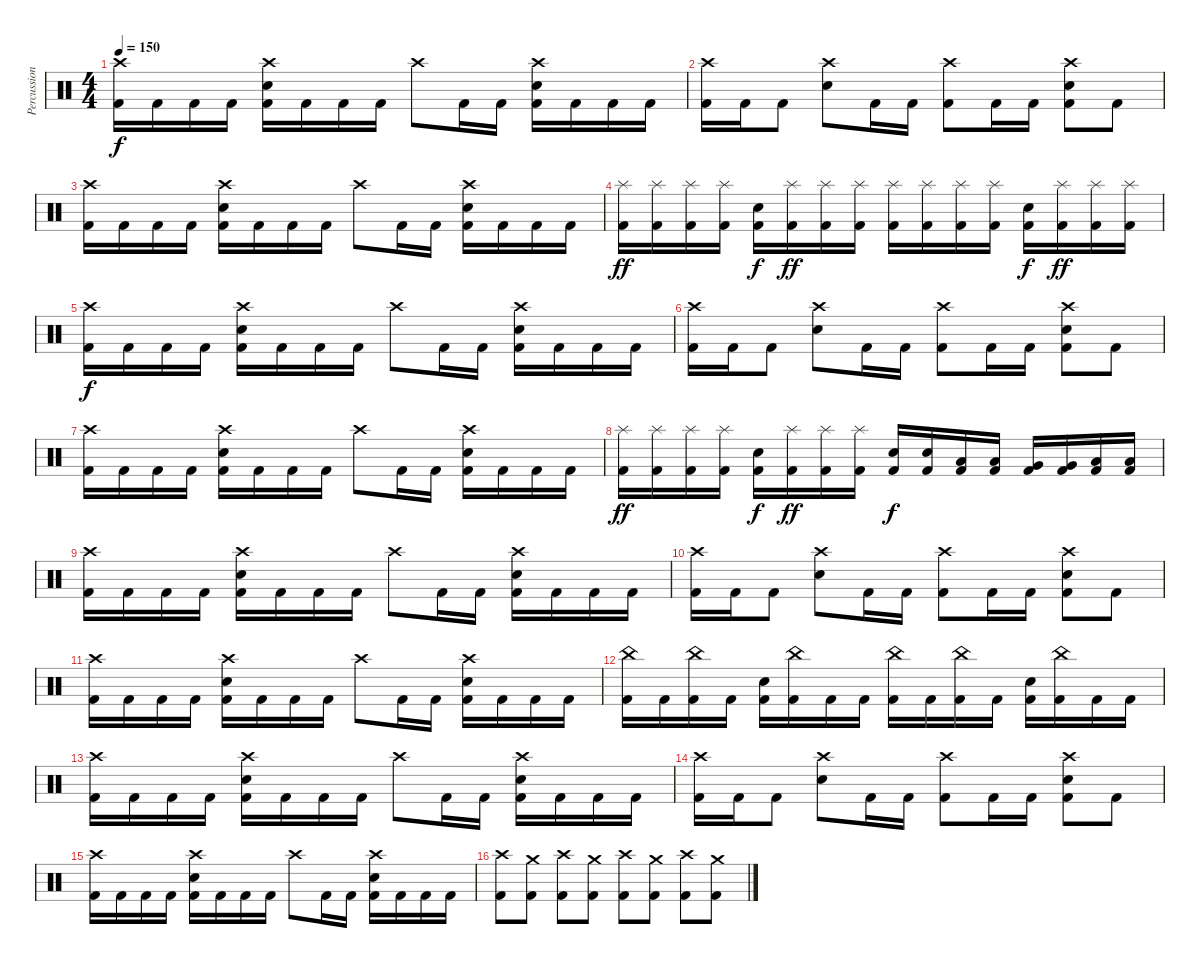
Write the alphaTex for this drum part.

\track ("Percussion" "Percussion") {instrument percussion}
\staff {score}
\articulation defaults
\ts (4 4)
\tempo 150
\clef neutral
\ks c
("Crash high (hit)" "Kick (hit) 2").16{dy f} "Kick (hit) 2".16 "Kick (hit) 2".16 "Kick (hit) 2".16 ("Crash high (hit)" "Electric Snare (hit)" "Kick (hit) 2").16 "Kick (hit) 2".16 "Kick (hit) 2".16 "Kick (hit) 2".16 "Crash high (hit)".8 "Kick (hit) 2".16 "Kick (hit) 2".16 ("Crash high (hit)" "Electric Snare (hit)" "Kick (hit) 2").16 "Kick (hit) 2".16 "Kick (hit) 2".16 "Kick (hit) 2".16 |
("Crash high (hit)" "Kick (hit) 2").16 "Kick (hit) 2".16 "Kick (hit) 2".8 ("Crash high (hit)" "Electric Snare (hit)").8 "Kick (hit) 2".16 "Kick (hit) 2".16 ("Crash high (hit)" "Kick (hit) 2").8 "Kick (hit) 2".16 "Kick (hit) 2".16 ("Crash high (hit)" "Electric Snare (hit)" "Kick (hit) 2").8 "Kick (hit) 2".8 |
("Crash high (hit)" "Kick (hit) 2").16 "Kick (hit) 2".16 "Kick (hit) 2".16 "Kick (hit) 2".16 ("Crash high (hit)" "Electric Snare (hit)" "Kick (hit) 2").16 "Kick (hit) 2".16 "Kick (hit) 2".16 "Kick (hit) 2".16 "Crash high (hit)".8 "Kick (hit) 2".16 "Kick (hit) 2".16 ("Crash high (hit)" "Electric Snare (hit)" "Kick (hit) 2").16 "Kick (hit) 2".16 "Kick (hit) 2".16 "Kick (hit) 2".16 |
("Splash (hit)" "Kick (hit) 2").16{dy ff} ("Splash (hit)" "Kick (hit) 2").16 ("Splash (hit)" "Kick (hit) 2").16 ("Splash (hit)" "Kick (hit) 2").16 ("Electric Snare (hit)" "Kick (hit) 2").16{dy f} ("Splash (hit)" "Kick (hit) 2").16{dy ff} ("Splash (hit)" "Kick (hit) 2").16 ("Splash (hit)" "Kick (hit) 2").16 ("Splash (hit)" "Kick (hit) 2").16 ("Splash (hit)" "Kick (hit) 2").16 ("Splash (hit)" "Kick (hit) 2").16 ("Splash (hit)" "Kick (hit) 2").16 ("Electric Snare (hit)" "Kick (hit) 2").16{dy f} ("Splash (hit)" "Kick (hit) 2").16{dy ff} ("Splash (hit)" "Kick (hit) 2").16 ("Splash (hit)" "Kick (hit) 2").16 |
("Crash high (hit)" "Kick (hit) 2").16{dy f} "Kick (hit) 2".16 "Kick (hit) 2".16 "Kick (hit) 2".16 ("Crash high (hit)" "Electric Snare (hit)" "Kick (hit) 2").16 "Kick (hit) 2".16 "Kick (hit) 2".16 "Kick (hit) 2".16 "Crash high (hit)".8 "Kick (hit) 2".16 "Kick (hit) 2".16 ("Crash high (hit)" "Electric Snare (hit)" "Kick (hit) 2").16 "Kick (hit) 2".16 "Kick (hit) 2".16 "Kick (hit) 2".16 |
("Crash high (hit)" "Kick (hit) 2").16 "Kick (hit) 2".16 "Kick (hit) 2".8 ("Crash high (hit)" "Electric Snare (hit)").8 "Kick (hit) 2".16 "Kick (hit) 2".16 ("Crash high (hit)" "Kick (hit) 2").8 "Kick (hit) 2".16 "Kick (hit) 2".16 ("Crash high (hit)" "Electric Snare (hit)" "Kick (hit) 2").8 "Kick (hit) 2".8 |
("Crash high (hit)" "Kick (hit) 2").16 "Kick (hit) 2".16 "Kick (hit) 2".16 "Kick (hit) 2".16 ("Crash high (hit)" "Electric Snare (hit)" "Kick (hit) 2").16 "Kick (hit) 2".16 "Kick (hit) 2".16 "Kick (hit) 2".16 "Crash high (hit)".8 "Kick (hit) 2".16 "Kick (hit) 2".16 ("Crash high (hit)" "Electric Snare (hit)" "Kick (hit) 2").16 "Kick (hit) 2".16 "Kick (hit) 2".16 "Kick (hit) 2".16 |
("Splash (hit)" "Kick (hit) 2").16{dy ff} ("Splash (hit)" "Kick (hit) 2").16 ("Splash (hit)" "Kick (hit) 2").16 ("Splash (hit)" "Kick (hit) 2").16 ("Electric Snare (hit)" "Kick (hit) 2").16{dy f} ("Splash (hit)" "Kick (hit) 2").16{dy ff} ("Splash (hit)" "Kick (hit) 2").16 ("Splash (hit)" "Kick (hit) 2").16 ("Electric Snare (hit)" "Kick (hit) 2").16{dy f} ("Electric Snare (hit)" "Kick (hit) 2").16 ("Low Tom (hit)" "Kick (hit) 2").16 ("Low Tom (hit)" "Kick (hit) 2").16 ("Very Low Tom (hit)" "Kick (hit) 2").16 ("Very Low Tom (hit)" "Kick (hit) 2").16 ("Low Floor Tom (hit)" "Kick (hit) 2").16 ("Low Floor Tom (hit)" "Kick (hit) 2").16 |
("Crash high (hit)" "Kick (hit) 2").16 "Kick (hit) 2".16 "Kick (hit) 2".16 "Kick (hit) 2".16 ("Crash high (hit)" "Electric Snare (hit)" "Kick (hit) 2").16 "Kick (hit) 2".16 "Kick (hit) 2".16 "Kick (hit) 2".16 "Crash high (hit)".8 "Kick (hit) 2".16 "Kick (hit) 2".16 ("Crash high (hit)" "Electric Snare (hit)" "Kick (hit) 2").16 "Kick (hit) 2".16 "Kick (hit) 2".16 "Kick (hit) 2".16 |
("Crash high (hit)" "Kick (hit) 2").16 "Kick (hit) 2".16 "Kick (hit) 2".8 ("Crash high (hit)" "Electric Snare (hit)").8 "Kick (hit) 2".16 "Kick (hit) 2".16 ("Crash high (hit)" "Kick (hit) 2").8 "Kick (hit) 2".16 "Kick (hit) 2".16 ("Crash high (hit)" "Electric Snare (hit)" "Kick (hit) 2").8 "Kick (hit) 2".8 |
("Crash high (hit)" "Kick (hit) 2").16 "Kick (hit) 2".16 "Kick (hit) 2".16 "Kick (hit) 2".16 ("Crash high (hit)" "Electric Snare (hit)" "Kick (hit) 2").16 "Kick (hit) 2".16 "Kick (hit) 2".16 "Kick (hit) 2".16 "Crash high (hit)".8 "Kick (hit) 2".16 "Kick (hit) 2".16 ("Crash high (hit)" "Electric Snare (hit)" "Kick (hit) 2").16 "Kick (hit) 2".16 "Kick (hit) 2".16 "Kick (hit) 2".16 |
("China (hit)" "Kick (hit) 2").16 "Kick (hit) 2".16 ("China (hit)" "Kick (hit) 2").16 "Kick (hit) 2".16 ("Electric Snare (hit)" "Kick (hit) 2").16 ("China (hit)" "Kick (hit) 2").16 "Kick (hit) 2".16 "Kick (hit) 2".16 ("China (hit)" "Kick (hit) 2").16 "Kick (hit) 2".16 ("China (hit)" "Kick (hit) 2").16 "Kick (hit) 2".16 ("Electric Snare (hit)" "Kick (hit) 2").16 ("China (hit)" "Kick (hit) 2").16 "Kick (hit) 2".16 "Kick (hit) 2".16 |
("Crash high (hit)" "Kick (hit) 2").16 "Kick (hit) 2".16 "Kick (hit) 2".16 "Kick (hit) 2".16 ("Crash high (hit)" "Electric Snare (hit)" "Kick (hit) 2").16 "Kick (hit) 2".16 "Kick (hit) 2".16 "Kick (hit) 2".16 "Crash high (hit)".8 "Kick (hit) 2".16 "Kick (hit) 2".16 ("Crash high (hit)" "Electric Snare (hit)" "Kick (hit) 2").16 "Kick (hit) 2".16 "Kick (hit) 2".16 "Kick (hit) 2".16 |
("Crash high (hit)" "Kick (hit) 2").16 "Kick (hit) 2".16 "Kick (hit) 2".8 ("Crash high (hit)" "Electric Snare (hit)").8 "Kick (hit) 2".16 "Kick (hit) 2".16 ("Crash high (hit)" "Kick (hit) 2").8 "Kick (hit) 2".16 "Kick (hit) 2".16 ("Crash high (hit)" "Electric Snare (hit)" "Kick (hit) 2").8 "Kick (hit) 2".8 |
("Crash high (hit)" "Kick (hit) 2").16 "Kick (hit) 2".16 "Kick (hit) 2".16 "Kick (hit) 2".16 ("Crash high (hit)" "Electric Snare (hit)" "Kick (hit) 2").16 "Kick (hit) 2".16 "Kick (hit) 2".16 "Kick (hit) 2".16 "Crash high (hit)".8 "Kick (hit) 2".16 "Kick (hit) 2".16 ("Crash high (hit)" "Electric Snare (hit)" "Kick (hit) 2").16 "Kick (hit) 2".16 "Kick (hit) 2".16 "Kick (hit) 2".16 |
("Crash high (hit)" "Kick (hit) 2").8 ("Crash medium (hit)" "Kick (hit) 2").8 ("Crash high (hit)" "Kick (hit) 2").8 ("Crash medium (hit)" "Kick (hit) 2").8 ("Crash high (hit)" "Kick (hit) 2").8 ("Crash medium (hit)" "Kick (hit) 2").8 ("Crash high (hit)" "Kick (hit) 2").8 ("Crash medium (hit)" "Kick (hit) 2").8
